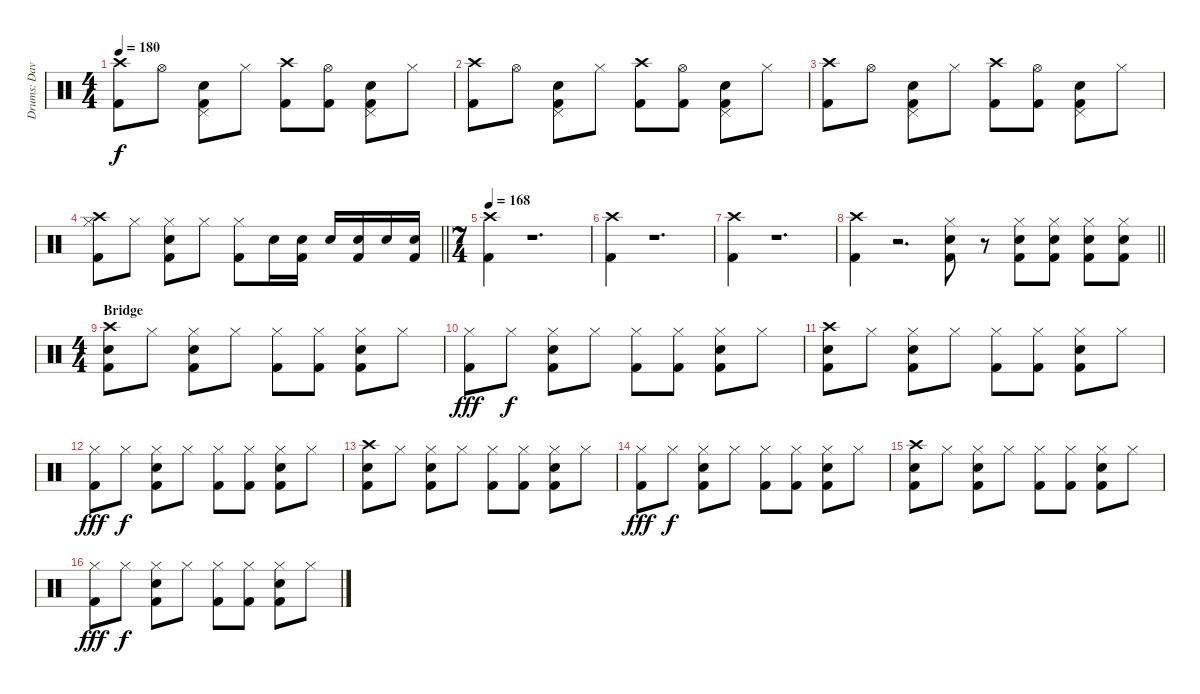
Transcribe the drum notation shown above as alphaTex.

\track ("Drums: Dave" "Drums: Dav") {instrument percussion}
\staff {score}
\articulation defaults
\ts (4 4)
\tempo 180
\clef neutral
\ks c
("Crash high (hit)" "Kick (hit) 2").8{dy f} "Hi-Hat (open)".8 ("Pedal Hi-Hat (hit)" "Snare (hit) 2" "Kick (hit) 2").8 "Hi-Hat (closed)".8 ("Crash high (hit)" "Kick (hit) 2").8 ("Hi-Hat (open)" "Kick (hit) 2").8 ("Pedal Hi-Hat (hit)" "Snare (hit) 2" "Kick (hit) 2").8 "Hi-Hat (closed)".8 |
("Crash high (hit)" "Kick (hit) 2").8 "Hi-Hat (open)".8 ("Pedal Hi-Hat (hit)" "Snare (hit) 2" "Kick (hit) 2").8 "Hi-Hat (closed)".8 ("Crash high (hit)" "Kick (hit) 2").8 ("Hi-Hat (open)" "Kick (hit) 2").8 ("Pedal Hi-Hat (hit)" "Snare (hit) 2" "Kick (hit) 2").8 "Hi-Hat (closed)".8 |
("Crash high (hit)" "Kick (hit) 2").8 "Hi-Hat (open)".8 ("Pedal Hi-Hat (hit)" "Snare (hit) 2" "Kick (hit) 2").8 "Hi-Hat (closed)".8 ("Crash high (hit)" "Kick (hit) 2").8 ("Hi-Hat (open)" "Kick (hit) 2").8 ("Pedal Hi-Hat (hit)" "Snare (hit) 2" "Kick (hit) 2").8 "Hi-Hat (closed)".8 |
\barLineRight lightlight
("Crash high (hit)" "Hi-Hat (closed)" "Kick (hit) 2").8 "Hi-Hat (closed)".8 ("Hi-Hat (closed)" "Snare (hit) 2" "Kick (hit) 2").8 "Hi-Hat (closed)".8 ("Hi-Hat (closed)" "Kick (hit) 2").8 "Snare (hit) 2".16 ("Snare (hit) 2" "Kick (hit) 2").16 "Snare (hit) 2".16 ("Snare (hit) 2" "Kick (hit) 2").16 "Snare (hit) 2".16 ("Snare (hit) 2" "Kick (hit) 2").16 |
\ts (7 4)
\tempo 168
("Crash high (hit)" "Kick (hit) 2").4 r.1{d} |
("Crash high (hit)" "Kick (hit) 2").4 r.1{d} |
("Crash high (hit)" "Kick (hit) 2").4 r.1{d} |
\barLineRight lightlight
("Crash high (hit)" "Kick (hit) 2").4 r.2{d} ("Hi-Hat (closed)" "Snare (hit) 2" "Kick (hit) 2").8 r.8 ("Hi-Hat (closed)" "Snare (hit) 2" "Kick (hit) 2").8 ("Hi-Hat (closed)" "Snare (hit) 2" "Kick (hit) 2").8 ("Hi-Hat (closed)" "Snare (hit) 2" "Kick (hit) 2").8 ("Hi-Hat (closed)" "Snare (hit) 2" "Kick (hit) 2").8 |
\ts (4 4)
\section ("" "Bridge")
("Crash high (hit)" "Snare (hit) 2" "Kick (hit) 2").8 "Hi-Hat (closed)".8 ("Hi-Hat (closed)" "Snare (hit) 2" "Kick (hit) 2").8 "Hi-Hat (closed)".8 ("Hi-Hat (closed)" "Kick (hit) 2").8 ("Hi-Hat (closed)" "Kick (hit) 2").8 ("Hi-Hat (closed)" "Snare (hit) 2" "Kick (hit) 2").8 "Hi-Hat (closed)".8 |
("Hi-Hat (closed)" "Kick (hit) 2").8{dy fff} "Hi-Hat (closed)".8{dy f} ("Hi-Hat (closed)" "Snare (hit) 2" "Kick (hit) 2").8 "Hi-Hat (closed)".8 ("Hi-Hat (closed)" "Kick (hit) 2").8 ("Hi-Hat (closed)" "Kick (hit) 2").8 ("Hi-Hat (closed)" "Snare (hit) 2" "Kick (hit) 2").8 "Hi-Hat (closed)".8 |
("Crash high (hit)" "Snare (hit) 2" "Kick (hit) 2").8 "Hi-Hat (closed)".8 ("Hi-Hat (closed)" "Snare (hit) 2" "Kick (hit) 2").8 "Hi-Hat (closed)".8 ("Hi-Hat (closed)" "Kick (hit) 2").8 ("Hi-Hat (closed)" "Kick (hit) 2").8 ("Hi-Hat (closed)" "Snare (hit) 2" "Kick (hit) 2").8 "Hi-Hat (closed)".8 |
("Hi-Hat (closed)" "Kick (hit) 2").8{dy fff} "Hi-Hat (closed)".8{dy f} ("Hi-Hat (closed)" "Snare (hit) 2" "Kick (hit) 2").8 "Hi-Hat (closed)".8 ("Hi-Hat (closed)" "Kick (hit) 2").8 ("Hi-Hat (closed)" "Kick (hit) 2").8 ("Hi-Hat (closed)" "Snare (hit) 2" "Kick (hit) 2").8 "Hi-Hat (closed)".8 |
("Crash high (hit)" "Snare (hit) 2" "Kick (hit) 2").8 "Hi-Hat (closed)".8 ("Hi-Hat (closed)" "Snare (hit) 2" "Kick (hit) 2").8 "Hi-Hat (closed)".8 ("Hi-Hat (closed)" "Kick (hit) 2").8 ("Hi-Hat (closed)" "Kick (hit) 2").8 ("Hi-Hat (closed)" "Snare (hit) 2" "Kick (hit) 2").8 "Hi-Hat (closed)".8 |
("Hi-Hat (closed)" "Kick (hit) 2").8{dy fff} "Hi-Hat (closed)".8{dy f} ("Hi-Hat (closed)" "Snare (hit) 2" "Kick (hit) 2").8 "Hi-Hat (closed)".8 ("Hi-Hat (closed)" "Kick (hit) 2").8 ("Hi-Hat (closed)" "Kick (hit) 2").8 ("Hi-Hat (closed)" "Snare (hit) 2" "Kick (hit) 2").8 "Hi-Hat (closed)".8 |
("Crash high (hit)" "Snare (hit) 2" "Kick (hit) 2").8 "Hi-Hat (closed)".8 ("Hi-Hat (closed)" "Snare (hit) 2" "Kick (hit) 2").8 "Hi-Hat (closed)".8 ("Hi-Hat (closed)" "Kick (hit) 2").8 ("Hi-Hat (closed)" "Kick (hit) 2").8 ("Hi-Hat (closed)" "Snare (hit) 2" "Kick (hit) 2").8 "Hi-Hat (closed)".8 |
("Hi-Hat (closed)" "Kick (hit) 2").8{dy fff} "Hi-Hat (closed)".8{dy f} ("Hi-Hat (closed)" "Snare (hit) 2" "Kick (hit) 2").8 "Hi-Hat (closed)".8 ("Hi-Hat (closed)" "Kick (hit) 2").8 ("Hi-Hat (closed)" "Kick (hit) 2").8 ("Hi-Hat (closed)" "Snare (hit) 2" "Kick (hit) 2").8 "Hi-Hat (closed)".8
